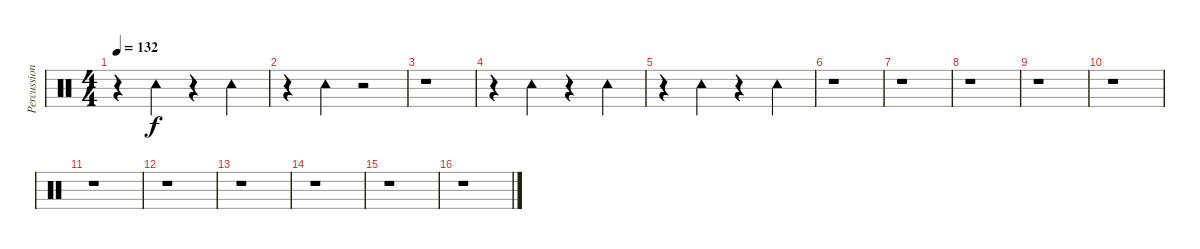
\track ("Percussion" "Percussion") {instrument percussion}
\staff {score}
\articulation defaults
\ts (4 4)
\tempo 132
\clef neutral
\ks c
r.4{dy f} "Tambourine (hit)".4 r.4 "Tambourine (hit)".4 |
r.4 "Tambourine (hit)".4 r.2 |
r.1 |
r.4 "Tambourine (hit)".4 r.4 "Tambourine (hit)".4 |
r.4 "Tambourine (hit)".4 r.4 "Tambourine (hit)".4 |
r.1 |
r.1 |
r.1 |
r.1 |
r.1 |
r.1 |
r.1 |
r.1 |
r.1 |
r.1 |
r.1
